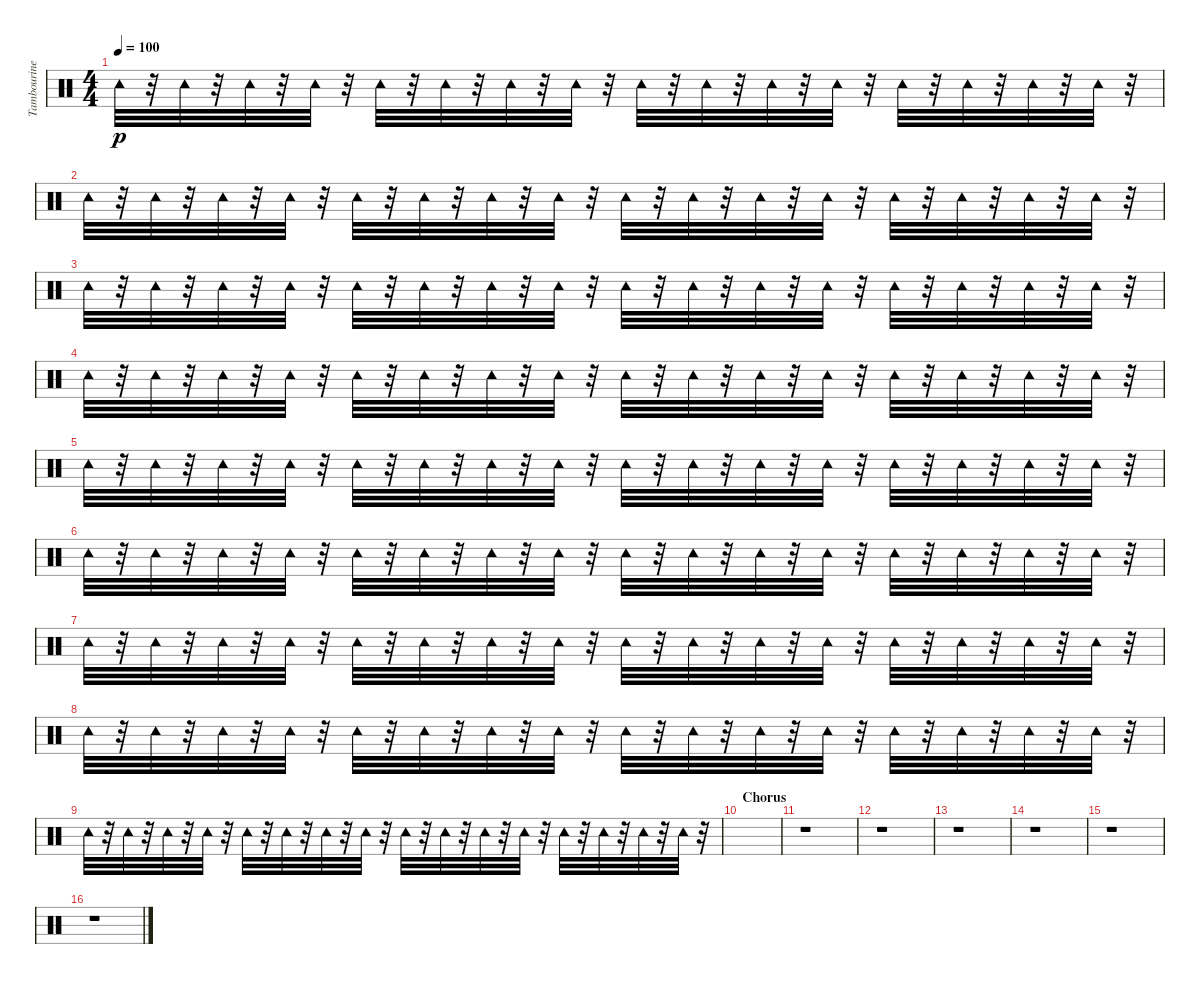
\track ("Tambourine" "Tambourine") {instrument percussion}
\staff {score}
\articulation defaults
\ts (4 4)
\tempo 100
\clef neutral
\ks c "Tambourine (hit)".32{dy p}
r.32 "Tambourine (hit)".32 r.32 "Tambourine (hit)".32 r.32 "Tambourine (hit)".32 r.32 "Tambourine (hit)".32 r.32 "Tambourine (hit)".32 r.32 "Tambourine (hit)".32 r.32 "Tambourine (hit)".32 r.32 "Tambourine (hit)".32 r.32 "Tambourine (hit)".32 r.32 "Tambourine (hit)".32 r.32 "Tambourine (hit)".32 r.32 "Tambourine (hit)".32 r.32 "Tambourine (hit)".32 r.32 "Tambourine (hit)".32 r.32 "Tambourine (hit)".32 r.32 |
"Tambourine (hit)".32 r.32 "Tambourine (hit)".32 r.32 "Tambourine (hit)".32 r.32 "Tambourine (hit)".32 r.32 "Tambourine (hit)".32 r.32 "Tambourine (hit)".32 r.32 "Tambourine (hit)".32 r.32 "Tambourine (hit)".32 r.32 "Tambourine (hit)".32 r.32 "Tambourine (hit)".32 r.32 "Tambourine (hit)".32 r.32 "Tambourine (hit)".32 r.32 "Tambourine (hit)".32 r.32 "Tambourine (hit)".32 r.32 "Tambourine (hit)".32 r.32 "Tambourine (hit)".32 r.32 |
"Tambourine (hit)".32 r.32 "Tambourine (hit)".32 r.32 "Tambourine (hit)".32 r.32 "Tambourine (hit)".32 r.32 "Tambourine (hit)".32 r.32 "Tambourine (hit)".32 r.32 "Tambourine (hit)".32 r.32 "Tambourine (hit)".32 r.32 "Tambourine (hit)".32 r.32 "Tambourine (hit)".32 r.32 "Tambourine (hit)".32 r.32 "Tambourine (hit)".32 r.32 "Tambourine (hit)".32 r.32 "Tambourine (hit)".32 r.32 "Tambourine (hit)".32 r.32 "Tambourine (hit)".32 r.32 |
"Tambourine (hit)".32 r.32 "Tambourine (hit)".32 r.32 "Tambourine (hit)".32 r.32 "Tambourine (hit)".32 r.32 "Tambourine (hit)".32 r.32 "Tambourine (hit)".32 r.32 "Tambourine (hit)".32 r.32 "Tambourine (hit)".32 r.32 "Tambourine (hit)".32 r.32 "Tambourine (hit)".32 r.32 "Tambourine (hit)".32 r.32 "Tambourine (hit)".32 r.32 "Tambourine (hit)".32 r.32 "Tambourine (hit)".32 r.32 "Tambourine (hit)".32 r.32 "Tambourine (hit)".32 r.32 |
"Tambourine (hit)".32 r.32 "Tambourine (hit)".32 r.32 "Tambourine (hit)".32 r.32 "Tambourine (hit)".32 r.32 "Tambourine (hit)".32 r.32 "Tambourine (hit)".32 r.32 "Tambourine (hit)".32 r.32 "Tambourine (hit)".32 r.32 "Tambourine (hit)".32 r.32 "Tambourine (hit)".32 r.32 "Tambourine (hit)".32 r.32 "Tambourine (hit)".32 r.32 "Tambourine (hit)".32 r.32 "Tambourine (hit)".32 r.32 "Tambourine (hit)".32 r.32 "Tambourine (hit)".32 r.32 |
"Tambourine (hit)".32 r.32 "Tambourine (hit)".32 r.32 "Tambourine (hit)".32 r.32 "Tambourine (hit)".32 r.32 "Tambourine (hit)".32 r.32 "Tambourine (hit)".32 r.32 "Tambourine (hit)".32 r.32 "Tambourine (hit)".32 r.32 "Tambourine (hit)".32 r.32 "Tambourine (hit)".32 r.32 "Tambourine (hit)".32 r.32 "Tambourine (hit)".32 r.32 "Tambourine (hit)".32 r.32 "Tambourine (hit)".32 r.32 "Tambourine (hit)".32 r.32 "Tambourine (hit)".32 r.32 |
"Tambourine (hit)".32 r.32 "Tambourine (hit)".32 r.32 "Tambourine (hit)".32 r.32 "Tambourine (hit)".32 r.32 "Tambourine (hit)".32 r.32 "Tambourine (hit)".32 r.32 "Tambourine (hit)".32 r.32 "Tambourine (hit)".32 r.32 "Tambourine (hit)".32 r.32 "Tambourine (hit)".32 r.32 "Tambourine (hit)".32 r.32 "Tambourine (hit)".32 r.32 "Tambourine (hit)".32 r.32 "Tambourine (hit)".32 r.32 "Tambourine (hit)".32 r.32 "Tambourine (hit)".32 r.32 |
"Tambourine (hit)".32 r.32 "Tambourine (hit)".32 r.32 "Tambourine (hit)".32 r.32 "Tambourine (hit)".32 r.32 "Tambourine (hit)".32 r.32 "Tambourine (hit)".32 r.32 "Tambourine (hit)".32 r.32 "Tambourine (hit)".32 r.32 "Tambourine (hit)".32 r.32 "Tambourine (hit)".32 r.32 "Tambourine (hit)".32 r.32 "Tambourine (hit)".32 r.32 "Tambourine (hit)".32 r.32 "Tambourine (hit)".32 r.32 "Tambourine (hit)".32 r.32 "Tambourine (hit)".32 r.32 |
"Tambourine (hit)".32 r.32 "Tambourine (hit)".32 r.32 "Tambourine (hit)".32 r.32 "Tambourine (hit)".32 r.32 "Tambourine (hit)".32 r.32 "Tambourine (hit)".32 r.32 "Tambourine (hit)".32 r.32 "Tambourine (hit)".32 r.32 "Tambourine (hit)".32 r.32 "Tambourine (hit)".32 r.32 "Tambourine (hit)".32 r.32 "Tambourine (hit)".32 r.32 "Tambourine (hit)".32 r.32 "Tambourine (hit)".32 r.32 "Tambourine (hit)".32 r.32 "Tambourine (hit)".32 r.32 |
\section ("" "Chorus")
|
r.1 |
r.1 |
r.1 |
r.1 |
r.1 |
r.1
